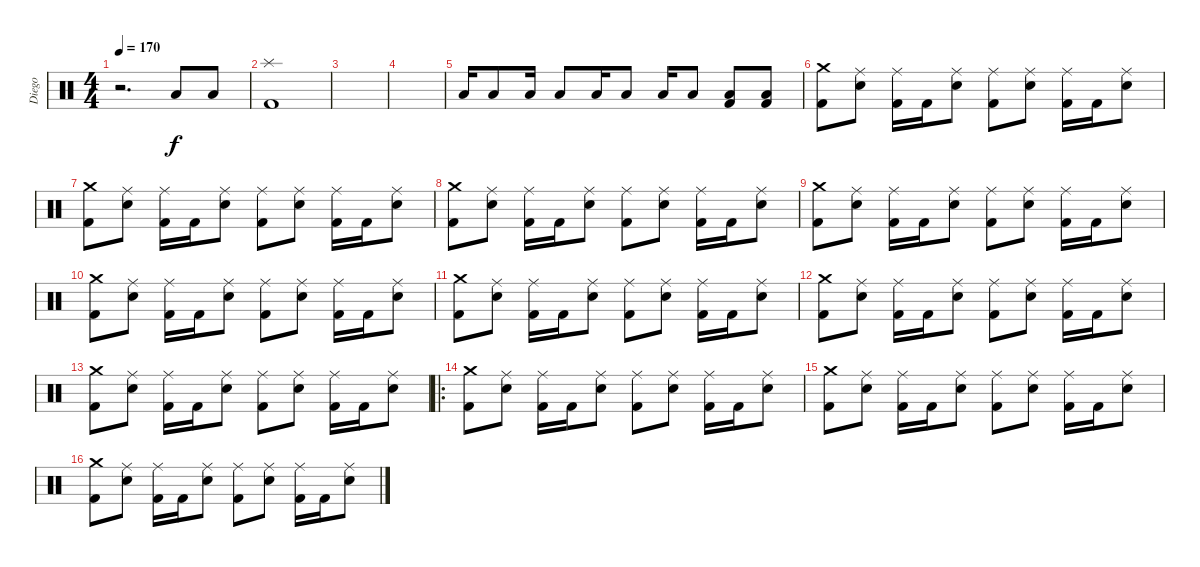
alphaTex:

\track ("Diego" "Diego") {instrument percussion}
\staff {score}
\articulation defaults
\ts (4 4)
\tempo 170
\clef neutral
\ks c
r.2{d dy f} "Low Tom (hit)".8 "Low Tom (hit)".8 |
("Splash (hit)" "Kick (hit) 2").1 |
|
|
"Low Tom (hit)".16 "Low Tom (hit)".8 "Low Tom (hit)".16 "Low Tom (hit)".8 "Low Tom (hit)".16 "Low Tom (hit)".8 "Low Tom (hit)".16 "Low Tom (hit)".8 ("Low Tom (hit)" "Kick (hit) 2").8 ("Low Tom (hit)" "Kick (hit) 2").8 |
("Crash medium (hit)" "Kick (hit) 2").8 ("Ride (middle)" "Electric Snare (hit)").8 ("Ride (middle)" "Kick (hit) 2").16 "Kick (hit) 2".16 ("Ride (middle)" "Electric Snare (hit)").8 ("Ride (middle)" "Kick (hit) 2").8 ("Ride (middle)" "Electric Snare (hit)").8 ("Ride (middle)" "Kick (hit) 2").16 "Kick (hit) 2".16 ("Ride (middle)" "Electric Snare (hit)").8 |
("Crash medium (hit)" "Kick (hit) 2").8 ("Ride (middle)" "Electric Snare (hit)").8 ("Ride (middle)" "Kick (hit) 2").16 "Kick (hit) 2".16 ("Ride (middle)" "Electric Snare (hit)").8 ("Ride (middle)" "Kick (hit) 2").8 ("Ride (middle)" "Electric Snare (hit)").8 ("Ride (middle)" "Kick (hit) 2").16 "Kick (hit) 2".16 ("Ride (middle)" "Electric Snare (hit)").8 |
("Crash medium (hit)" "Kick (hit) 2").8 ("Ride (middle)" "Electric Snare (hit)").8 ("Ride (middle)" "Kick (hit) 2").16 "Kick (hit) 2".16 ("Ride (middle)" "Electric Snare (hit)").8 ("Ride (middle)" "Kick (hit) 2").8 ("Ride (middle)" "Electric Snare (hit)").8 ("Ride (middle)" "Kick (hit) 2").16 "Kick (hit) 2".16 ("Ride (middle)" "Electric Snare (hit)").8 |
("Crash medium (hit)" "Kick (hit) 2").8 ("Ride (middle)" "Electric Snare (hit)").8 ("Ride (middle)" "Kick (hit) 2").16 "Kick (hit) 2".16 ("Ride (middle)" "Electric Snare (hit)").8 ("Ride (middle)" "Kick (hit) 2").8 ("Ride (middle)" "Electric Snare (hit)").8 ("Ride (middle)" "Kick (hit) 2").16 "Kick (hit) 2".16 ("Ride (middle)" "Electric Snare (hit)").8 |
("Crash medium (hit)" "Kick (hit) 2").8 ("Ride (middle)" "Electric Snare (hit)").8 ("Ride (middle)" "Kick (hit) 2").16 "Kick (hit) 2".16 ("Ride (middle)" "Electric Snare (hit)").8 ("Ride (middle)" "Kick (hit) 2").8 ("Ride (middle)" "Electric Snare (hit)").8 ("Ride (middle)" "Kick (hit) 2").16 "Kick (hit) 2".16 ("Ride (middle)" "Electric Snare (hit)").8 |
("Crash medium (hit)" "Kick (hit) 2").8 ("Ride (middle)" "Electric Snare (hit)").8 ("Ride (middle)" "Kick (hit) 2").16 "Kick (hit) 2".16 ("Ride (middle)" "Electric Snare (hit)").8 ("Ride (middle)" "Kick (hit) 2").8 ("Ride (middle)" "Electric Snare (hit)").8 ("Ride (middle)" "Kick (hit) 2").16 "Kick (hit) 2".16 ("Ride (middle)" "Electric Snare (hit)").8 |
("Crash medium (hit)" "Kick (hit) 2").8 ("Ride (middle)" "Electric Snare (hit)").8 ("Ride (middle)" "Kick (hit) 2").16 "Kick (hit) 2".16 ("Ride (middle)" "Electric Snare (hit)").8 ("Ride (middle)" "Kick (hit) 2").8 ("Ride (middle)" "Electric Snare (hit)").8 ("Ride (middle)" "Kick (hit) 2").16 "Kick (hit) 2".16 ("Ride (middle)" "Electric Snare (hit)").8 |
("Crash medium (hit)" "Kick (hit) 2").8 ("Ride (middle)" "Electric Snare (hit)").8 ("Ride (middle)" "Kick (hit) 2").16 "Kick (hit) 2".16 ("Ride (middle)" "Electric Snare (hit)").8 ("Ride (middle)" "Kick (hit) 2").8 ("Ride (middle)" "Electric Snare (hit)").8 ("Ride (middle)" "Kick (hit) 2").16 "Kick (hit) 2".16 ("Ride (middle)" "Electric Snare (hit)").8 |
\ro
("Crash medium (hit)" "Kick (hit) 2").8 ("Ride (middle)" "Electric Snare (hit)").8 ("Ride (middle)" "Kick (hit) 2").16 "Kick (hit) 2".16 ("Ride (middle)" "Electric Snare (hit)").8 ("Ride (middle)" "Kick (hit) 2").8 ("Ride (middle)" "Electric Snare (hit)").8 ("Ride (middle)" "Kick (hit) 2").16 "Kick (hit) 2".16 ("Ride (middle)" "Electric Snare (hit)").8 |
("Crash medium (hit)" "Kick (hit) 2").8 ("Ride (middle)" "Electric Snare (hit)").8 ("Ride (middle)" "Kick (hit) 2").16 "Kick (hit) 2".16 ("Ride (middle)" "Electric Snare (hit)").8 ("Ride (middle)" "Kick (hit) 2").8 ("Ride (middle)" "Electric Snare (hit)").8 ("Ride (middle)" "Kick (hit) 2").16 "Kick (hit) 2".16 ("Ride (middle)" "Electric Snare (hit)").8 |
("Crash medium (hit)" "Kick (hit) 2").8 ("Ride (middle)" "Electric Snare (hit)").8 ("Ride (middle)" "Kick (hit) 2").16 "Kick (hit) 2".16 ("Ride (middle)" "Electric Snare (hit)").8 ("Ride (middle)" "Kick (hit) 2").8 ("Ride (middle)" "Electric Snare (hit)").8 ("Ride (middle)" "Kick (hit) 2").16 "Kick (hit) 2".16 ("Ride (middle)" "Electric Snare (hit)").8
